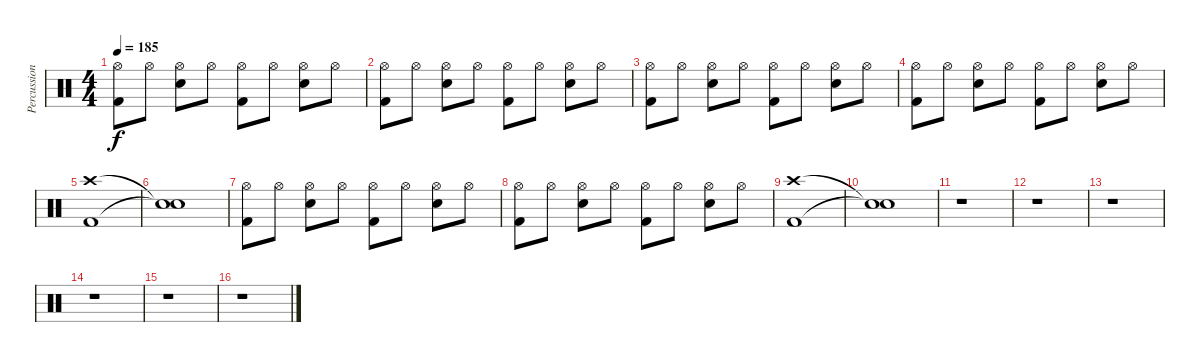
\track ("Percussion" "Percussion") {instrument percussion}
\staff {score}
\articulation defaults
\ts (4 4)
\tempo 185
\clef neutral
\ks c
("Hi-Hat (open)" "Kick (hit) 2").8{dy f} "Hi-Hat (open)".8 ("Hi-Hat (open)" "Snare (hit) 2").8 "Hi-Hat (open)".8 ("Hi-Hat (open)" "Kick (hit) 2").8 "Hi-Hat (open)".8 ("Hi-Hat (open)" "Snare (hit) 2").8 "Hi-Hat (open)".8 |
("Hi-Hat (open)" "Kick (hit) 2").8 "Hi-Hat (open)".8 ("Hi-Hat (open)" "Snare (hit) 2").8 "Hi-Hat (open)".8 ("Hi-Hat (open)" "Kick (hit) 2").8 "Hi-Hat (open)".8 ("Hi-Hat (open)" "Snare (hit) 2").8 "Hi-Hat (open)".8 |
("Hi-Hat (open)" "Kick (hit) 2").8 "Hi-Hat (open)".8 ("Hi-Hat (open)" "Snare (hit) 2").8 "Hi-Hat (open)".8 ("Hi-Hat (open)" "Kick (hit) 2").8 "Hi-Hat (open)".8 ("Hi-Hat (open)" "Snare (hit) 2").8 "Hi-Hat (open)".8 |
("Hi-Hat (open)" "Kick (hit) 2").8 "Hi-Hat (open)".8 ("Hi-Hat (open)" "Snare (hit) 2").8 "Hi-Hat (open)".8 ("Hi-Hat (open)" "Kick (hit) 2").8 "Hi-Hat (open)".8 ("Hi-Hat (open)" "Snare (hit) 2").8 "Hi-Hat (open)".8 |
("Crash high (hit)" "Kick (hit) 2").1 |
("Snare (hit)"{t} "Snare (hit)"{t}).1 |
("Hi-Hat (open)" "Kick (hit) 2").8 "Hi-Hat (open)".8 ("Hi-Hat (open)" "Snare (hit) 2").8 "Hi-Hat (open)".8 ("Hi-Hat (open)" "Kick (hit) 2").8 "Hi-Hat (open)".8 ("Hi-Hat (open)" "Snare (hit) 2").8 "Hi-Hat (open)".8 |
("Hi-Hat (open)" "Kick (hit) 2").8 "Hi-Hat (open)".8 ("Hi-Hat (open)" "Snare (hit) 2").8 "Hi-Hat (open)".8 ("Hi-Hat (open)" "Kick (hit) 2").8 "Hi-Hat (open)".8 ("Hi-Hat (open)" "Snare (hit) 2").8 "Hi-Hat (open)".8 |
("Crash high (hit)" "Kick (hit) 2").1 |
("Snare (hit)"{t} "Snare (hit)"{t}).1 |
r.1 |
r.1 |
r.1 |
r.1 |
r.1 |
r.1
